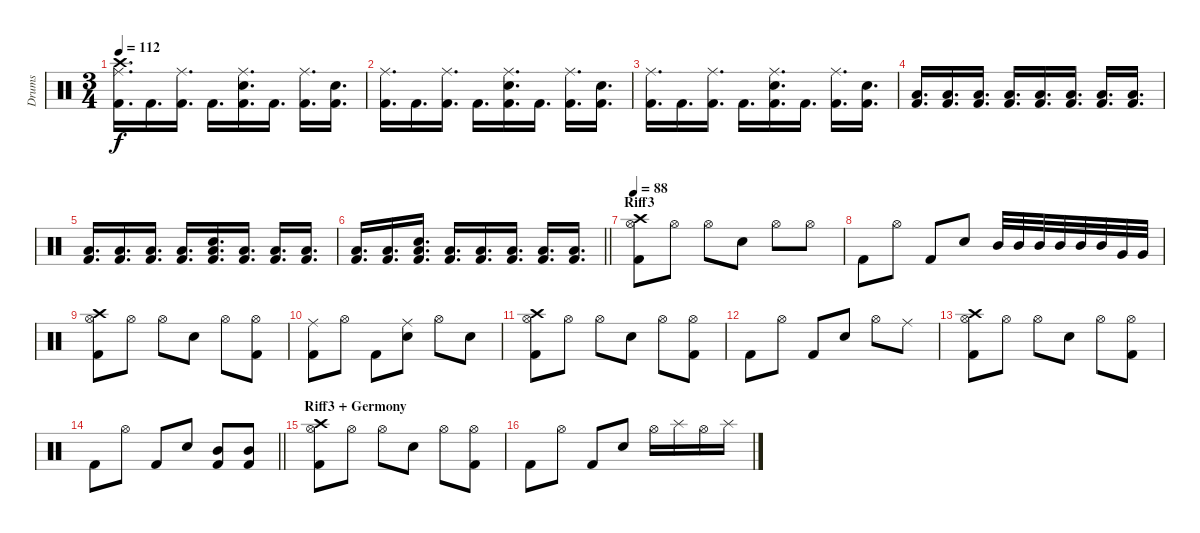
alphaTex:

\track ("Drums" "Drums") {instrument percussion}
\staff {score}
\articulation defaults
\ts (3 4)
\tempo 112
\clef neutral
\ks c
("Crash high (hit)" "Ride (middle)" "Kick (hit) 2").16{d dy f} "Kick (hit) 2".16{d} ("Ride (middle)" "Kick (hit) 2").16{d} "Kick (hit) 2".16{d} ("Ride (middle)" "Kick (hit) 2" "Snare (hit) 2").16{d} "Kick (hit) 2".16{d} ("Ride (middle)" "Kick (hit) 2").16{d} ("Kick (hit) 2" "Snare (hit) 2").16{d} |
("Ride (middle)" "Kick (hit) 2").16{d} "Kick (hit) 2".16{d} ("Ride (middle)" "Kick (hit) 2").16{d} "Kick (hit) 2".16{d} ("Ride (middle)" "Kick (hit) 2" "Snare (hit) 2").16{d} "Kick (hit) 2".16{d} ("Ride (middle)" "Kick (hit) 2").16{d} ("Kick (hit) 2" "Snare (hit) 2").16{d} |
("Ride (middle)" "Kick (hit) 2").16{d} "Kick (hit) 2".16{d} ("Ride (middle)" "Kick (hit) 2").16{d} "Kick (hit) 2".16{d} ("Ride (middle)" "Kick (hit) 2" "Snare (hit) 2").16{d} "Kick (hit) 2".16{d} ("Ride (middle)" "Kick (hit) 2").16{d} ("Kick (hit) 2" "Snare (hit) 2").16{d} |
("Low Tom (hit)" "Kick (hit) 2").16{d} ("Low Tom (hit)" "Kick (hit) 2").16{d} ("Low Tom (hit)" "Kick (hit) 2").16{d} ("Low Tom (hit)" "Kick (hit) 2").16{d} ("Low Tom (hit)" "Kick (hit) 2").16{d} ("Low Tom (hit)" "Kick (hit) 2").16{d} ("Low Tom (hit)" "Kick (hit) 2").16{d} ("Low Tom (hit)" "Kick (hit) 2").16{d} |
("Low Tom (hit)" "Kick (hit) 2").16{d} ("Low Tom (hit)" "Kick (hit) 2").16{d} ("Low Tom (hit)" "Kick (hit) 2").16{d} ("Low Tom (hit)" "Kick (hit) 2").16{d} ("Low Tom (hit)" "Kick (hit) 2" "Snare (hit) 2").16{d} ("Low Tom (hit)" "Kick (hit) 2").16{d} ("Low Tom (hit)" "Kick (hit) 2").16{d} ("Low Tom (hit)" "Kick (hit) 2").16{d} |
\barLineRight lightlight
("Low Tom (hit)" "Kick (hit) 2").16{d} ("Low Tom (hit)" "Kick (hit) 2").16{d} ("Low Tom (hit)" "Kick (hit) 2" "Snare (hit) 2").16{d} ("Low Tom (hit)" "Kick (hit) 2").16{d} ("Low Tom (hit)" "Kick (hit) 2").16{d} ("Low Tom (hit)" "Kick (hit) 2").16{d} ("Low Tom (hit)" "Kick (hit) 2").16{d} ("Low Tom (hit)" "Kick (hit) 2").16{d} |
\section ("" "Riff3")
\tempo 88
("Hi-Hat (open)" "Crash high (hit)" "Kick (hit) 2").8 "Hi-Hat (open)".8 "Hi-Hat (open)".8 "Snare (hit) 2".8 "Hi-Hat (open)".8 "Hi-Hat (open)".8 |
"Kick (hit) 2".8 "Hi-Hat (open)".8 "Kick (hit) 2".8 "Snare (hit) 2".8 "Mid Tom (hit)".32 "Mid Tom (hit)".32 "Mid Tom (hit)".32 "Mid Tom (hit)".32 "Mid Tom (hit)".32 "Mid Tom (hit)".32 "Very Low Tom (hit)".32 "Very Low Tom (hit)".32 |
("Hi-Hat (open)" "Crash high (hit)" "Kick (hit) 2").8 "Hi-Hat (open)".8 "Hi-Hat (open)".8 "Snare (hit) 2".8 "Hi-Hat (open)".8 ("Hi-Hat (open)" "Kick (hit) 2").8 |
("Ride (middle)" "Kick (hit) 2").8 "Hi-Hat (open)".8 "Kick (hit) 2".8 ("Ride (middle)" "Snare (hit) 2").8 "Hi-Hat (open)".8 "Snare (hit) 2".8 |
("Hi-Hat (open)" "Crash high (hit)" "Kick (hit) 2").8 "Hi-Hat (open)".8 "Hi-Hat (open)".8 "Snare (hit) 2".8 "Hi-Hat (open)".8 ("Hi-Hat (open)" "Kick (hit) 2").8 |
"Kick (hit) 2".8 "Hi-Hat (open)".8 "Kick (hit) 2".8 "Snare (hit) 2".8 "Hi-Hat (open)".8 "Ride (middle)".8 |
("Hi-Hat (open)" "Crash high (hit)" "Kick (hit) 2").8 "Hi-Hat (open)".8 "Hi-Hat (open)".8 "Snare (hit) 2".8 "Hi-Hat (open)".8 ("Hi-Hat (open)" "Kick (hit) 2").8 |
\barLineRight lightlight "Kick (hit) 2".8 "Hi-Hat (open)".8 "Kick (hit) 2".8 "Snare (hit) 2".8
("Mid Tom (hit)" "Kick (hit) 2").8 ("Mid Tom (hit)" "Kick (hit) 2").8 |
\section ("" "Riff3 + Germony")
("Hi-Hat (open)" "Crash high (hit)" "Kick (hit) 2").8 "Hi-Hat (open)".8 "Hi-Hat (open)".8 "Snare (hit) 2".8 "Hi-Hat (open)".8 ("Hi-Hat (open)" "Kick (hit) 2").8 |
"Kick (hit) 2".8 "Hi-Hat (open)".8 "Kick (hit) 2".8 "Snare (hit) 2".8 "Hi-Hat (open)".16 "Splash (hit)".16 "Hi-Hat (open)".16 "Splash (hit)".16
